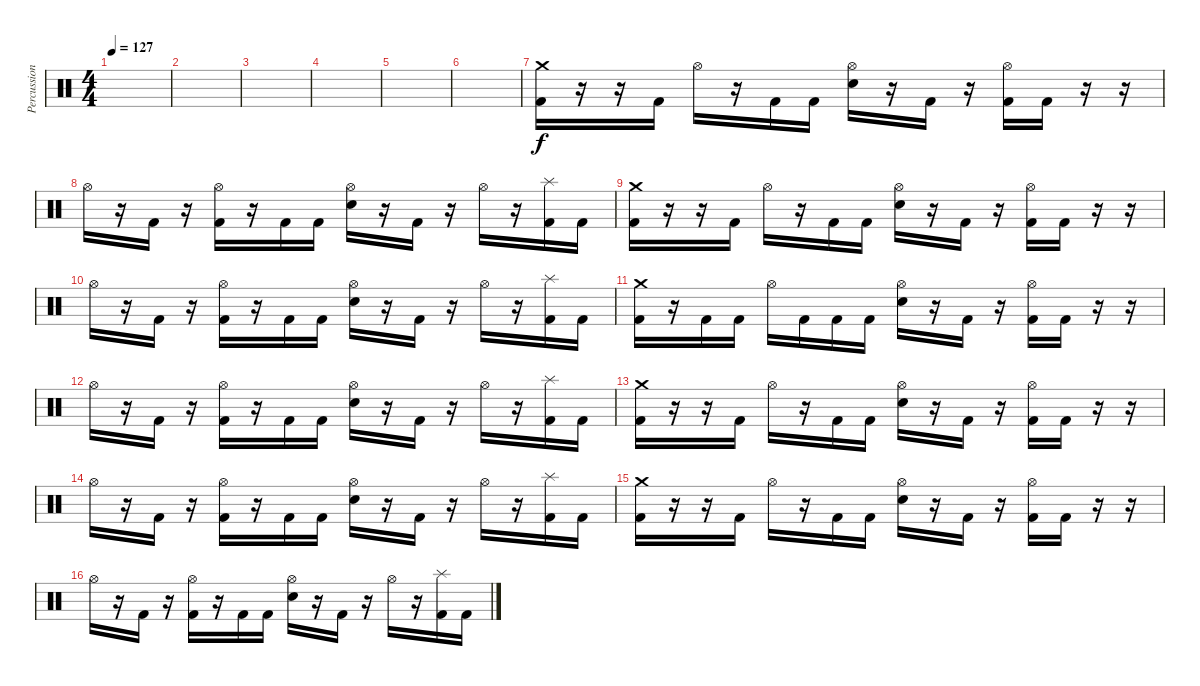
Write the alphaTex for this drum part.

\track ("Percussion" "Percussion") {instrument percussion}
\staff {score}
\articulation defaults
\ts (4 4)
\tempo 127
\clef neutral
\ks c
|
|
|
|
|
|
("Crash medium (hit)" "Kick (hit) 2").16 r.16 r.16 "Kick (hit) 2".16 "Hi-Hat (open)".16 r.16 "Kick (hit) 2".16 "Kick (hit) 2".16 ("Hi-Hat (open)" "Snare (hit) 2").16 r.16 "Kick (hit) 2".16 r.16 ("Hi-Hat (open)" "Kick (hit) 2").16 "Kick (hit) 2".16 r.16 r.16 |
"Hi-Hat (open)".16 r.16 "Kick (hit) 2".16 r.16 ("Hi-Hat (open)" "Kick (hit) 2").16 r.16 "Kick (hit) 2".16 "Kick (hit) 2".16 ("Hi-Hat (open)" "Snare (hit) 2").16 r.16 "Kick (hit) 2".16 r.16 "Hi-Hat (open)".16 r.16 ("Splash (hit)" "Kick (hit) 2").16 "Kick (hit) 2".16 |
("Crash medium (hit)" "Kick (hit) 2").16 r.16 r.16 "Kick (hit) 2".16 "Hi-Hat (open)".16 r.16 "Kick (hit) 2".16 "Kick (hit) 2".16 ("Hi-Hat (open)" "Snare (hit) 2").16 r.16 "Kick (hit) 2".16 r.16 ("Hi-Hat (open)" "Kick (hit) 2").16 "Kick (hit) 2".16 r.16 r.16 |
"Hi-Hat (open)".16 r.16 "Kick (hit) 2".16 r.16 ("Hi-Hat (open)" "Kick (hit) 2").16 r.16 "Kick (hit) 2".16 "Kick (hit) 2".16 ("Hi-Hat (open)" "Snare (hit) 2").16 r.16 "Kick (hit) 2".16 r.16 "Hi-Hat (open)".16 r.16 ("Splash (hit)" "Kick (hit) 2").16 "Kick (hit) 2".16 |
("Crash medium (hit)" "Kick (hit) 2").16 r.16 "Kick (hit) 2".16 "Kick (hit) 2".16 "Hi-Hat (open)".16 "Kick (hit) 2".16 "Kick (hit) 2".16 "Kick (hit) 2".16 ("Hi-Hat (open)" "Snare (hit) 2").16 r.16 "Kick (hit) 2".16 r.16 ("Hi-Hat (open)" "Kick (hit) 2").16 "Kick (hit) 2".16 r.16 r.16 |
"Hi-Hat (open)".16 r.16 "Kick (hit) 2".16 r.16 ("Hi-Hat (open)" "Kick (hit) 2").16 r.16 "Kick (hit) 2".16 "Kick (hit) 2".16 ("Hi-Hat (open)" "Snare (hit) 2").16 r.16 "Kick (hit) 2".16 r.16 "Hi-Hat (open)".16 r.16 ("Splash (hit)" "Kick (hit) 2").16 "Kick (hit) 2".16 |
("Crash medium (hit)" "Kick (hit) 2").16 r.16 r.16 "Kick (hit) 2".16 "Hi-Hat (open)".16 r.16 "Kick (hit) 2".16 "Kick (hit) 2".16 ("Hi-Hat (open)" "Snare (hit) 2").16 r.16 "Kick (hit) 2".16 r.16 ("Hi-Hat (open)" "Kick (hit) 2").16 "Kick (hit) 2".16 r.16 r.16 |
"Hi-Hat (open)".16 r.16 "Kick (hit) 2".16 r.16 ("Hi-Hat (open)" "Kick (hit) 2").16 r.16 "Kick (hit) 2".16 "Kick (hit) 2".16 ("Hi-Hat (open)" "Snare (hit) 2").16 r.16 "Kick (hit) 2".16 r.16 "Hi-Hat (open)".16 r.16 ("Splash (hit)" "Kick (hit) 2").16 "Kick (hit) 2".16 |
("Crash medium (hit)" "Kick (hit) 2").16 r.16 r.16 "Kick (hit) 2".16 "Hi-Hat (open)".16 r.16 "Kick (hit) 2".16 "Kick (hit) 2".16 ("Hi-Hat (open)" "Snare (hit) 2").16 r.16 "Kick (hit) 2".16 r.16 ("Hi-Hat (open)" "Kick (hit) 2").16 "Kick (hit) 2".16 r.16 r.16 |
"Hi-Hat (open)".16 r.16 "Kick (hit) 2".16 r.16 ("Hi-Hat (open)" "Kick (hit) 2").16 r.16 "Kick (hit) 2".16 "Kick (hit) 2".16 ("Hi-Hat (open)" "Snare (hit) 2").16 r.16 "Kick (hit) 2".16 r.16 "Hi-Hat (open)".16 r.16 ("Splash (hit)" "Kick (hit) 2").16 "Kick (hit) 2".16
